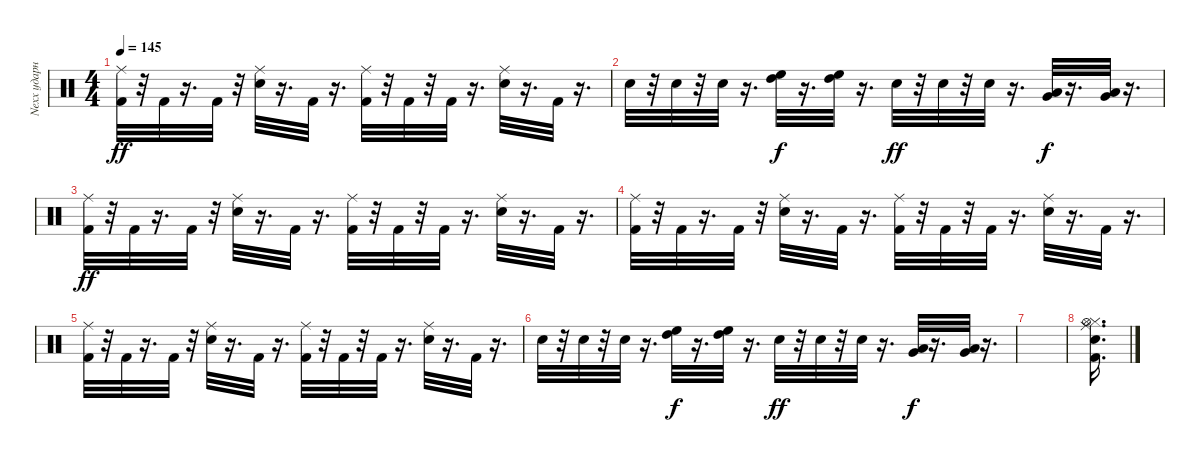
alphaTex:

\track ("Nexx ударные" "Nexx ударн") {instrument percussion}
\staff {score}
\articulation defaults
\ts (4 4)
\tempo 145
\clef neutral
\ks c
("Ride (middle)" "Kick (hit) 2").32{dy ff} r.32 "Kick (hit) 2".32 r.16{d} "Kick (hit) 2".32 r.32 ("Ride (middle)" "Electric Snare (hit)").32 r.16{d} "Kick (hit) 2".32 r.16{d} ("Ride (middle)" "Kick (hit) 2").32 r.32 "Kick (hit) 2".32 r.32 "Kick (hit) 2".32 r.16{d} ("Ride (middle)" "Electric Snare (hit)").32 r.16{d} "Kick (hit) 2".32 r.16{d} |
"Snare (hit) 2".32 r.32 "Snare (hit) 2".32 r.32 "Snare (hit) 2".32 r.16{d} ("High Floor Tom (hit)" "High Tom (hit)").32{dy f} r.16{d} ("High Tom (hit)" "High Floor Tom (hit)").32 r.16{d} "Snare (hit) 2".32{dy ff} r.32 "Snare (hit) 2".32 r.32 "Snare (hit) 2".32 r.16{d} ("Very Low Tom (hit)" "Low Tom (hit)").32{dy f} r.16{d} ("Very Low Tom (hit)" "Low Tom (hit)").32 r.16{d} |
("Ride (middle)" "Kick (hit) 2").32{dy ff} r.32 "Kick (hit) 2".32 r.16{d} "Kick (hit) 2".32 r.32 ("Ride (middle)" "Electric Snare (hit)").32 r.16{d} "Kick (hit) 2".32 r.16{d} ("Ride (middle)" "Kick (hit) 2").32 r.32 "Kick (hit) 2".32 r.32 "Kick (hit) 2".32 r.16{d} ("Ride (middle)" "Electric Snare (hit)").32 r.16{d} "Kick (hit) 2".32 r.16{d} |
("Ride (middle)" "Kick (hit) 2").32 r.32 "Kick (hit) 2".32 r.16{d} "Kick (hit) 2".32 r.32 ("Ride (middle)" "Electric Snare (hit)").32 r.16{d} "Kick (hit) 2".32 r.16{d} ("Ride (middle)" "Kick (hit) 2").32 r.32 "Kick (hit) 2".32 r.32 "Kick (hit) 2".32 r.16{d} ("Ride (middle)" "Electric Snare (hit)").32 r.16{d} "Kick (hit) 2".32 r.16{d} |
("Ride (middle)" "Kick (hit) 2").32 r.32 "Kick (hit) 2".32 r.16{d} "Kick (hit) 2".32 r.32 ("Ride (middle)" "Electric Snare (hit)").32 r.16{d} "Kick (hit) 2".32 r.16{d} ("Ride (middle)" "Kick (hit) 2").32 r.32 "Kick (hit) 2".32 r.32 "Kick (hit) 2".32 r.16{d} ("Ride (middle)" "Electric Snare (hit)").32 r.16{d} "Kick (hit) 2".32 r.16{d} |
"Snare (hit) 2".32 r.32 "Snare (hit) 2".32 r.32 "Snare (hit) 2".32 r.16{d} ("High Floor Tom (hit)" "High Tom (hit)").32{dy f} r.16{d} ("High Tom (hit)" "High Floor Tom (hit)").32 r.16{d} "Snare (hit) 2".32{dy ff} r.32 "Snare (hit) 2".32 r.32 "Snare (hit) 2".32 r.16{d} ("Very Low Tom (hit)" "Low Tom (hit)").32{dy f} r.16{d} ("Very Low Tom (hit)" "Low Tom (hit)").32 r.16{d} |
|
("Electric Snare (hit)" "Kick (hit) 2" "Hi-Hat (closed)" "Hi-Hat (open)" "Ride (middle)").16{d}
